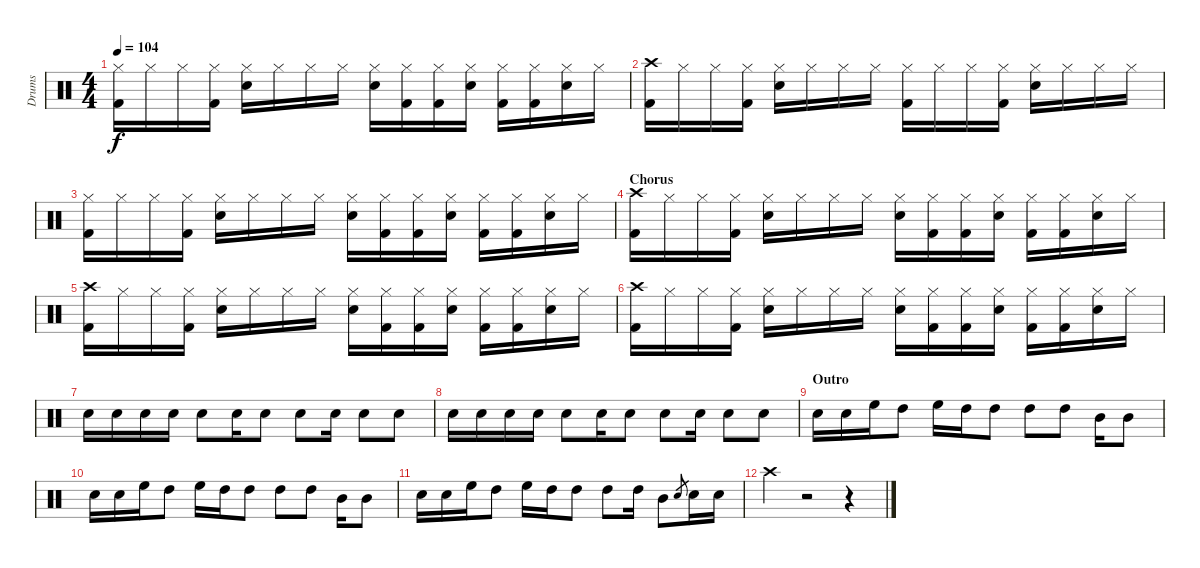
\track ("Drums" "Drums") {instrument percussion}
\staff {score}
\articulation defaults
\ts (4 4)
\tempo 104
\clef neutral
\ks c
("Hi-Hat (closed)" "Kick (hit) 2").16{dy f} "Hi-Hat (closed)".16 "Hi-Hat (closed)".16 ("Hi-Hat (closed)" "Kick (hit) 2").16 ("Hi-Hat (closed)" "Snare (hit) 2").16 "Hi-Hat (closed)".16 "Hi-Hat (closed)".16 "Hi-Hat (closed)".16 ("Hi-Hat (closed)" "Snare (hit) 2").16 ("Hi-Hat (closed)" "Kick (hit) 2").16 ("Hi-Hat (closed)" "Kick (hit) 2").16 ("Hi-Hat (closed)" "Snare (hit) 2").16 ("Hi-Hat (closed)" "Kick (hit) 2").16 ("Hi-Hat (closed)" "Kick (hit) 2").16 ("Hi-Hat (closed)" "Snare (hit) 2").16 "Hi-Hat (closed)".16 |
("Crash high (hit)" "Kick (hit) 2").16 "Hi-Hat (closed)".16 "Hi-Hat (closed)".16 ("Hi-Hat (closed)" "Kick (hit) 2").16 ("Hi-Hat (closed)" "Snare (hit) 2").16 "Hi-Hat (closed)".16 "Hi-Hat (closed)".16 "Hi-Hat (closed)".16 ("Hi-Hat (closed)" "Kick (hit) 2").16 "Hi-Hat (closed)".16 "Hi-Hat (closed)".16 ("Hi-Hat (closed)" "Kick (hit) 2").16 ("Hi-Hat (closed)" "Snare (hit) 2").16 "Hi-Hat (closed)".16 "Hi-Hat (closed)".16 "Hi-Hat (closed)".16 |
("Hi-Hat (closed)" "Kick (hit) 2").16 "Hi-Hat (closed)".16 "Hi-Hat (closed)".16 ("Hi-Hat (closed)" "Kick (hit) 2").16 ("Hi-Hat (closed)" "Snare (hit) 2").16 "Hi-Hat (closed)".16 "Hi-Hat (closed)".16 "Hi-Hat (closed)".16 ("Hi-Hat (closed)" "Snare (hit) 2").16 ("Hi-Hat (closed)" "Kick (hit) 2").16 ("Hi-Hat (closed)" "Kick (hit) 2").16 ("Hi-Hat (closed)" "Snare (hit) 2").16 ("Hi-Hat (closed)" "Kick (hit) 2").16 ("Hi-Hat (closed)" "Kick (hit) 2").16 ("Hi-Hat (closed)" "Snare (hit) 2").16 "Hi-Hat (closed)".16 |
\section ("" "Chorus")
("Crash high (hit)" "Kick (hit) 2").16 "Hi-Hat (closed)".16 "Hi-Hat (closed)".16 ("Hi-Hat (closed)" "Kick (hit) 2").16 ("Hi-Hat (closed)" "Snare (hit) 2").16 "Hi-Hat (closed)".16 "Hi-Hat (closed)".16 "Hi-Hat (closed)".16 ("Hi-Hat (closed)" "Snare (hit) 2").16 ("Hi-Hat (closed)" "Kick (hit) 2").16 ("Hi-Hat (closed)" "Kick (hit) 2").16 ("Hi-Hat (closed)" "Snare (hit) 2").16 ("Hi-Hat (closed)" "Kick (hit) 2").16 ("Hi-Hat (closed)" "Kick (hit) 2").16 ("Hi-Hat (closed)" "Snare (hit) 2").16 "Hi-Hat (closed)".16 |
("Crash high (hit)" "Kick (hit) 2").16 "Hi-Hat (closed)".16 "Hi-Hat (closed)".16 ("Hi-Hat (closed)" "Kick (hit) 2").16 ("Hi-Hat (closed)" "Snare (hit) 2").16 "Hi-Hat (closed)".16 "Hi-Hat (closed)".16 "Hi-Hat (closed)".16 ("Hi-Hat (closed)" "Snare (hit) 2").16 ("Hi-Hat (closed)" "Kick (hit) 2").16 ("Hi-Hat (closed)" "Kick (hit) 2").16 ("Hi-Hat (closed)" "Snare (hit) 2").16 ("Hi-Hat (closed)" "Kick (hit) 2").16 ("Hi-Hat (closed)" "Kick (hit) 2").16 ("Hi-Hat (closed)" "Snare (hit) 2").16 "Hi-Hat (closed)".16 |
("Crash high (hit)" "Kick (hit) 2").16 "Hi-Hat (closed)".16 "Hi-Hat (closed)".16 ("Hi-Hat (closed)" "Kick (hit) 2").16 ("Hi-Hat (closed)" "Snare (hit) 2").16 "Hi-Hat (closed)".16 "Hi-Hat (closed)".16 "Hi-Hat (closed)".16 ("Hi-Hat (closed)" "Snare (hit) 2").16 ("Hi-Hat (closed)" "Kick (hit) 2").16 ("Hi-Hat (closed)" "Kick (hit) 2").16 ("Hi-Hat (closed)" "Snare (hit) 2").16 ("Hi-Hat (closed)" "Kick (hit) 2").16 ("Hi-Hat (closed)" "Kick (hit) 2").16 ("Hi-Hat (closed)" "Snare (hit) 2").16 "Hi-Hat (closed)".16 |
"Snare (hit) 2".16 "Snare (hit) 2".16 "Snare (hit) 2".16 "Snare (hit) 2".16 "Snare (hit) 2".8 "Snare (hit) 2".16 "Snare (hit) 2".8 "Snare (hit) 2".8 "Snare (hit) 2".16 "Snare (hit) 2".8 "Snare (hit) 2".8 |
"Snare (hit) 2".16 "Snare (hit) 2".16 "Snare (hit) 2".16 "Snare (hit) 2".16 "Snare (hit) 2".8 "Snare (hit) 2".16 "Snare (hit) 2".8 "Snare (hit) 2".8 "Snare (hit) 2".16 "Snare (hit) 2".8 "Snare (hit) 2".8 |
\section ("" "Outro")
"Snare (hit) 2".16 "Snare (hit) 2".16 "High Floor Tom (hit)".16 "High Tom (hit)".8 "High Floor Tom (hit)".16 "High Tom (hit)".16 "High Tom (hit)".8 "High Tom (hit)".8 "High Tom (hit)".8 "Mid Tom (hit)".16 "Mid Tom (hit)".8 |
"Snare (hit) 2".16 "Snare (hit) 2".16 "High Floor Tom (hit)".16 "High Tom (hit)".8 "High Floor Tom (hit)".16 "High Tom (hit)".16 "High Tom (hit)".8 "High Tom (hit)".8 "High Tom (hit)".8 "Mid Tom (hit)".16 "Mid Tom (hit)".8 |
"Snare (hit) 2".16 "Snare (hit) 2".16 "High Floor Tom (hit)".16 "High Tom (hit)".8 "High Floor Tom (hit)".16 "High Tom (hit)".16 "High Tom (hit)".8 "High Tom (hit)".8 "High Tom (hit)".16 "Mid Tom (hit)".8 "Snare (hit) 2".8{gr} "Snare (hit) 2".16 "Snare (hit) 2".16 |
"Crash high (hit)".4 r.2 r.4
